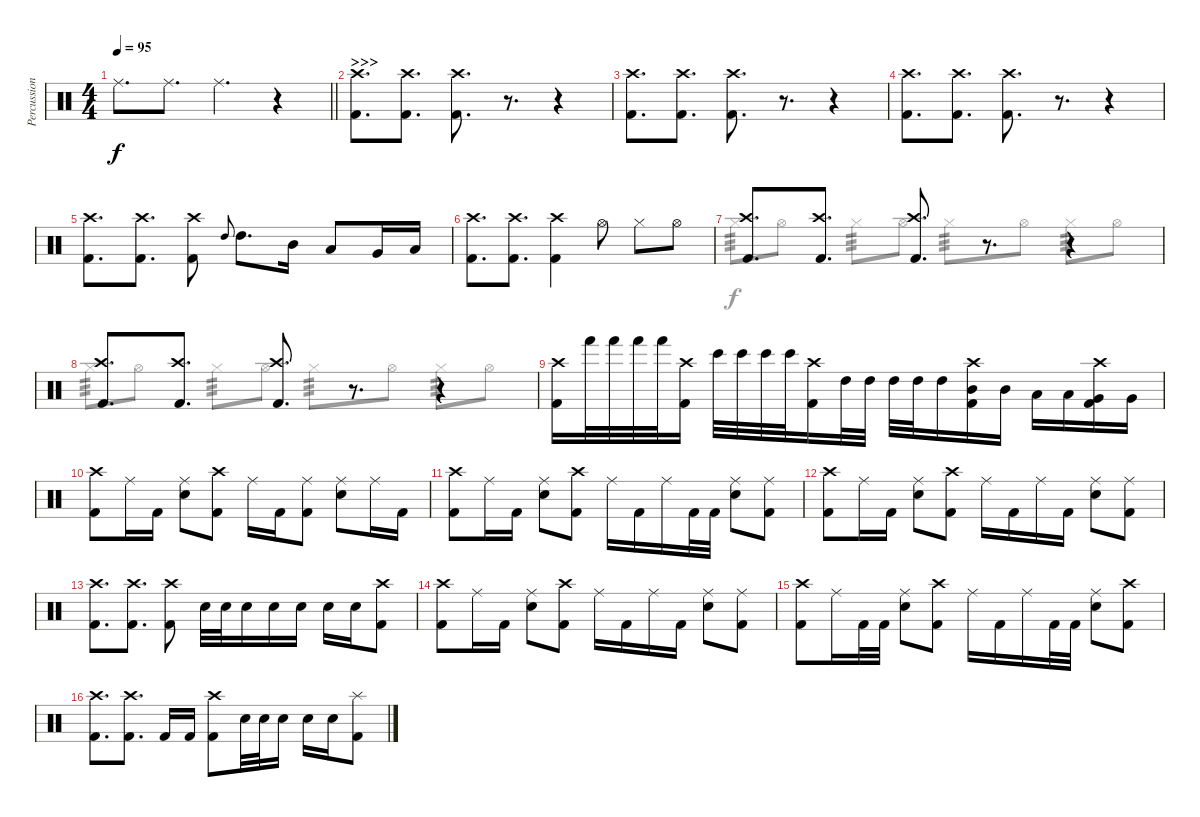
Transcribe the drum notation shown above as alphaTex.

\track ("Percussion Mike" "Percussion") {instrument percussion}
\staff {score}
\articulation defaults
\voice
\ts (4 4)
\tempo 95
\clef neutral
\barLineRight lightlight
\ks c "Ride (middle)".8{d dy f} "Ride (middle)".8{d} "Ride (middle)".4{d}
r.4 |
\section ("" ">>>")
("Crash high (hit)" "Kick (hit) 2").8{d} ("Crash high (hit)" "Kick (hit) 2").8{d} ("Crash high (hit)" "Kick (hit) 2").8{d} r.8{d} r.4 |
("Crash high (hit)" "Kick (hit) 2").8{d} ("Crash high (hit)" "Kick (hit) 2").8{d} ("Crash high (hit)" "Kick (hit) 2").8{d} r.8{d} r.4 |
("Crash high (hit)" "Kick (hit) 2").8{d} ("Crash high (hit)" "Kick (hit) 2").8{d} ("Crash high (hit)" "Kick (hit) 2").8{d} r.8{d} r.4 |
("Crash high (hit)" "Kick (hit) 2").8{d} ("Crash high (hit)" "Kick (hit) 2").8{d} ("Crash high (hit)" "Kick (hit) 2").8 "High Tom (hit)".8{gr onbeat} "High Tom (hit)".8{d} "Mid Tom (hit)".16 "Low Tom (hit)".8 "Very Low Tom (hit)".16 "Low Floor Tom (hit)".16 |
("Crash high (hit)" "Kick (hit) 2").8{d} ("Crash high (hit)" "Kick (hit) 2").8{d} ("Crash high (hit)" "Kick (hit) 2").4 "Hi-Hat (open)".8 "Hi-Hat (closed)".8 "Hi-Hat (open)".8 |
("Crash high (hit)" "Kick (hit) 2").8{d} ("Crash high (hit)" "Kick (hit) 2").8{d} ("Crash high (hit)" "Kick (hit) 2").8{d} r.8{d} r.4 |
("Crash high (hit)" "Kick (hit) 2").8{d} ("Crash high (hit)" "Kick (hit) 2").8{d} ("Crash high (hit)" "Kick (hit) 2").8{d} r.8{d} r.4 |
("Crash high (hit)" "Kick (hit) 2").16 "Hand (hit)".32 "Hand (hit)".32 "Hand (hit)".32 "Hand (hit)".32 ("Crash high (hit)" "Kick (hit) 2").16 "Bongo High (hit)".32 "Bongo High (hit)".32 "Bongo High (hit)".32 "Bongo High (hit)".32 ("Crash high (hit)" "Kick (hit) 2").16 "High Tom (hit)".32 "High Tom (hit)".32 "High Tom (hit)".32 "High Tom (hit)".32 "High Tom (hit)".16 ("Crash high (hit)" "Mid Tom (hit)" "Kick (hit) 2").16 "Mid Tom (hit)".16 "Low Tom (hit)".16 "Low Tom (hit)".16 ("Crash high (hit)" "Very Low Tom (hit)" "Kick (hit) 2").16 "Very Low Tom (hit)".16 |
("Crash high (hit)" "Kick (hit) 2").8 "Ride (middle)".16 "Kick (hit) 2".16 ("Ride (middle)" "Snare (hit) 2").8 ("Crash high (hit)" "Kick (hit) 2").8 "Ride (middle)".16 "Kick (hit) 2".16 ("Ride (middle)" "Kick (hit) 2").8 ("Ride (middle)" "Snare (hit) 2").8 "Ride (middle)".16 "Kick (hit) 2".16 |
("Crash high (hit)" "Kick (hit) 2").8 "Ride (middle)".16 "Kick (hit) 2".16 ("Ride (middle)" "Snare (hit) 2").8 ("Crash high (hit)" "Kick (hit) 2").8 "Ride (middle)".16 "Kick (hit) 2".16 "Ride (middle)".16 "Kick (hit) 2".32 "Kick (hit) 2".32 ("Ride (middle)" "Snare (hit) 2").8 ("Ride (middle)" "Kick (hit) 2").8 |
("Crash high (hit)" "Kick (hit) 2").8 "Ride (middle)".16 "Kick (hit) 2".16 ("Ride (middle)" "Snare (hit) 2").8 ("Crash high (hit)" "Kick (hit) 2").8 "Ride (middle)".16 "Kick (hit) 2".16 "Ride (middle)".16 "Kick (hit) 2".16 ("Ride (middle)" "Snare (hit) 2").8 ("Ride (middle)" "Kick (hit) 2").8 |
("Crash high (hit)" "Kick (hit) 2").8{d} ("Crash high (hit)" "Kick (hit) 2").8{d} ("Crash high (hit)" "Kick (hit) 2").8 "Snare (hit) 2".32 "Snare (hit) 2".32 "Snare (hit) 2".16 "Snare (hit) 2".16 "Snare (hit) 2".16 "Snare (hit) 2".16 "Snare (hit) 2".16 ("Crash high (hit)" "Kick (hit) 2").8 |
("Crash high (hit)" "Kick (hit) 2").8 "Ride (middle)".16 "Kick (hit) 2".16 ("Ride (middle)" "Snare (hit) 2").8 ("Crash high (hit)" "Kick (hit) 2").8 "Ride (middle)".16 "Kick (hit) 2".16 "Ride (middle)".16 "Kick (hit) 2".16 ("Ride (middle)" "Snare (hit) 2").8 ("Ride (middle)" "Kick (hit) 2").8 |
("Crash high (hit)" "Kick (hit) 2").8 "Ride (middle)".16 "Kick (hit) 2".32 "Kick (hit) 2".32 ("Ride (middle)" "Snare (hit) 2").8 ("Crash high (hit)" "Kick (hit) 2").8 "Ride (middle)".16 "Kick (hit) 2".16 "Ride (middle)".16 "Kick (hit) 2".32 "Kick (hit) 2".32 ("Ride (middle)" "Snare (hit) 2").8 ("Crash high (hit)" "Kick (hit) 2").8 |
("Crash high (hit)" "Kick (hit) 2").8{d} ("Crash high (hit)" "Kick (hit) 2").8{d} "Kick (hit) 2".16 "Kick (hit) 2".16 ("Crash high (hit)" "Kick (hit) 2").8 "Snare (hit) 2".32 "Snare (hit) 2".32 "Snare (hit) 2".16 "Snare (hit) 2".16 "Snare (hit) 2".16 ("Splash (hit)" "Kick (hit) 2").8
\voice
\clef neutral
\ottava regular
\simile none
\barLineRight lightlight
\ks c
|
|
|
|
|
|
"Hi-Hat (closed)".8{tp 3} "Hi-Hat (open)".8 "Hi-Hat (closed)".8{tp 3} "Hi-Hat (open)".8 "Hi-Hat (closed)".8{tp 3} "Hi-Hat (open)".8 "Hi-Hat (closed)".8{tp 3} "Hi-Hat (open)".8 |
"Hi-Hat (closed)".8{tp 3} "Hi-Hat (open)".8 "Hi-Hat (closed)".8{tp 3} "Hi-Hat (open)".8 "Hi-Hat (closed)".8{tp 3} "Hi-Hat (open)".8 "Hi-Hat (closed)".8{tp 3} "Hi-Hat (open)".8 |
|
|
|
|
|
|
|
